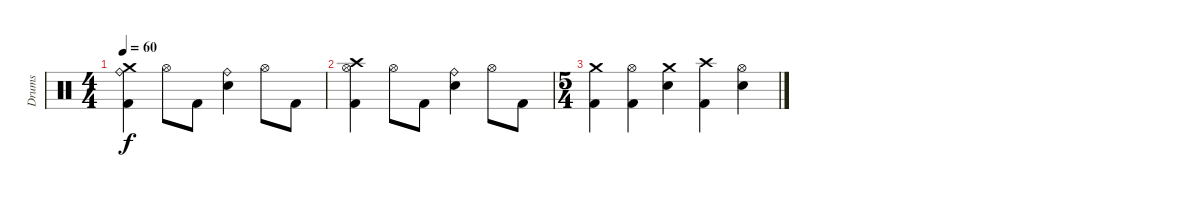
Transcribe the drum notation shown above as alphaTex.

\track ("Drums" "Drums") {instrument percussion}
\staff {score}
\articulation defaults
\ts (4 4)
\tempo 60
\clef neutral
\ks c
("Kick (hit) 2" "Ride (bell)" "Crash medium (hit)").4{dy f} "Hi-Hat (open)".8 "Kick (hit) 2".8 ("Electric Snare (hit)" "Ride (bell)").4 "Hi-Hat (open)".8 "Kick (hit) 2".8 |
("Kick (hit) 2" "Hi-Hat (open)" "Crash high (hit)").4 "Hi-Hat (open)".8 "Kick (hit) 2".8 ("Electric Snare (hit)" "Ride (bell)").4 "Hi-Hat (open)".8 "Kick (hit) 2".8 |
\ts (5 4)
("Kick (hit) 2" "Crash medium (hit)").4 ("Kick (hit) 2" "Hi-Hat (open)").4 ("Electric Snare (hit)" "Crash medium (hit)").4 ("Kick (hit) 2" "Crash high (hit)").4 ("Electric Snare (hit)" "Hi-Hat (open)").4
